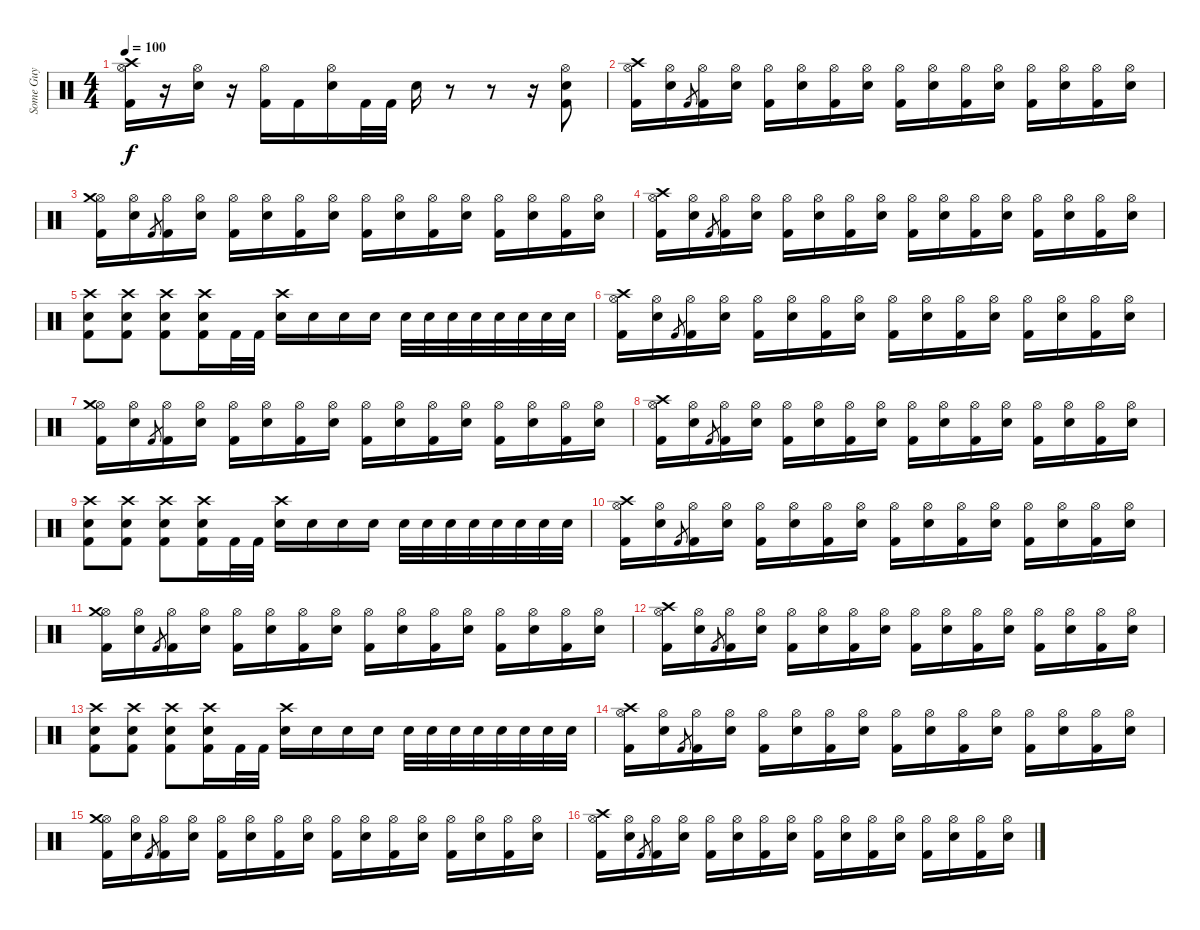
\track ("Some Guy" "Some Guy") {instrument percussion}
\staff {score}
\articulation defaults
\ts (4 4)
\tempo 100
\clef neutral
\ks c
("Hi-Hat (open)" "Crash high (hit)" "Kick (hit) 2").16{dy f} r.16 ("Hi-Hat (open)" "Snare (hit) 2").16 r.16 ("Hi-Hat (open)" "Kick (hit) 2").16 "Kick (hit) 2".16 ("Hi-Hat (open)" "Snare (hit) 2").16 "Kick (hit) 2".32 "Kick (hit) 2".32 "Snare (hit) 2".16 r.8 r.8 r.16 ("Hi-Hat (open)" "Snare (hit) 2" "Kick (hit) 2").8 |
("Hi-Hat (open)" "Crash high (hit)" "Kick (hit) 2").16 ("Hi-Hat (open)" "Snare (hit) 2").16 "Kick (hit) 2".8{gr} ("Hi-Hat (open)" "Kick (hit) 2").16 ("Hi-Hat (open)" "Snare (hit) 2").16 ("Hi-Hat (open)" "Kick (hit) 2").16 ("Hi-Hat (open)" "Snare (hit) 2").16 ("Hi-Hat (open)" "Kick (hit) 2").16 ("Hi-Hat (open)" "Snare (hit) 2").16 ("Hi-Hat (open)" "Kick (hit) 2").16 ("Hi-Hat (open)" "Snare (hit) 2").16 ("Hi-Hat (open)" "Kick (hit) 2").16 ("Hi-Hat (open)" "Snare (hit) 2").16 ("Hi-Hat (open)" "Kick (hit) 2").16 ("Hi-Hat (open)" "Snare (hit) 2").16 ("Hi-Hat (open)" "Kick (hit) 2").16 ("Hi-Hat (open)" "Snare (hit) 2").16 |
("Hi-Hat (open)" "Crash medium (hit)" "Kick (hit) 2").16 ("Hi-Hat (open)" "Snare (hit) 2").16 "Kick (hit) 2".8{gr} ("Hi-Hat (open)" "Kick (hit) 2").16 ("Hi-Hat (open)" "Snare (hit) 2").16 ("Hi-Hat (open)" "Kick (hit) 2").16 ("Hi-Hat (open)" "Snare (hit) 2").16 ("Hi-Hat (open)" "Kick (hit) 2").16 ("Hi-Hat (open)" "Snare (hit) 2").16 ("Hi-Hat (open)" "Kick (hit) 2").16 ("Hi-Hat (open)" "Snare (hit) 2").16 ("Hi-Hat (open)" "Kick (hit) 2").16 ("Hi-Hat (open)" "Snare (hit) 2").16 ("Hi-Hat (open)" "Kick (hit) 2").16 ("Hi-Hat (open)" "Snare (hit) 2").16 ("Hi-Hat (open)" "Kick (hit) 2").16 ("Hi-Hat (open)" "Snare (hit) 2").16 |
("Hi-Hat (open)" "Crash high (hit)" "Kick (hit) 2").16 ("Hi-Hat (open)" "Snare (hit) 2").16 "Kick (hit) 2".8{gr} ("Hi-Hat (open)" "Kick (hit) 2").16 ("Hi-Hat (open)" "Snare (hit) 2").16 ("Hi-Hat (open)" "Kick (hit) 2").16 ("Hi-Hat (open)" "Snare (hit) 2").16 ("Hi-Hat (open)" "Kick (hit) 2").16 ("Hi-Hat (open)" "Snare (hit) 2").16 ("Hi-Hat (open)" "Kick (hit) 2").16 ("Hi-Hat (open)" "Snare (hit) 2").16 ("Hi-Hat (open)" "Kick (hit) 2").16 ("Hi-Hat (open)" "Snare (hit) 2").16 ("Hi-Hat (open)" "Kick (hit) 2").16 ("Hi-Hat (open)" "Snare (hit) 2").16 ("Hi-Hat (open)" "Kick (hit) 2").16 ("Hi-Hat (open)" "Snare (hit) 2").16 |
("Crash high (hit)" "Kick (hit) 2" "Snare (hit) 2").8 ("Crash high (hit)" "Kick (hit) 2" "Snare (hit) 2").8 ("Crash high (hit)" "Kick (hit) 2" "Snare (hit) 2").8 ("Crash high (hit)" "Kick (hit) 2" "Snare (hit) 2").16 "Kick (hit) 2".32 "Kick (hit) 2".32 ("Snare (hit) 2" "Crash high (hit)").16 "Snare (hit) 2".16 "Snare (hit) 2".16 "Snare (hit) 2".16 "Snare (hit) 2".32 "Snare (hit) 2".32 "Snare (hit) 2".32 "Snare (hit) 2".32 "Snare (hit) 2".32 "Snare (hit) 2".32 "Snare (hit) 2".32 "Snare (hit) 2".32 |
("Hi-Hat (open)" "Crash high (hit)" "Kick (hit) 2").16 ("Hi-Hat (open)" "Snare (hit) 2").16 "Kick (hit) 2".8{gr} ("Hi-Hat (open)" "Kick (hit) 2").16 ("Hi-Hat (open)" "Snare (hit) 2").16 ("Hi-Hat (open)" "Kick (hit) 2").16 ("Hi-Hat (open)" "Snare (hit) 2").16 ("Hi-Hat (open)" "Kick (hit) 2").16 ("Hi-Hat (open)" "Snare (hit) 2").16 ("Hi-Hat (open)" "Kick (hit) 2").16 ("Hi-Hat (open)" "Snare (hit) 2").16 ("Hi-Hat (open)" "Kick (hit) 2").16 ("Hi-Hat (open)" "Snare (hit) 2").16 ("Hi-Hat (open)" "Kick (hit) 2").16 ("Hi-Hat (open)" "Snare (hit) 2").16 ("Hi-Hat (open)" "Kick (hit) 2").16 ("Hi-Hat (open)" "Snare (hit) 2").16 |
("Hi-Hat (open)" "Crash medium (hit)" "Kick (hit) 2").16 ("Hi-Hat (open)" "Snare (hit) 2").16 "Kick (hit) 2".8{gr} ("Hi-Hat (open)" "Kick (hit) 2").16 ("Hi-Hat (open)" "Snare (hit) 2").16 ("Hi-Hat (open)" "Kick (hit) 2").16 ("Hi-Hat (open)" "Snare (hit) 2").16 ("Hi-Hat (open)" "Kick (hit) 2").16 ("Hi-Hat (open)" "Snare (hit) 2").16 ("Hi-Hat (open)" "Kick (hit) 2").16 ("Hi-Hat (open)" "Snare (hit) 2").16 ("Hi-Hat (open)" "Kick (hit) 2").16 ("Hi-Hat (open)" "Snare (hit) 2").16 ("Hi-Hat (open)" "Kick (hit) 2").16 ("Hi-Hat (open)" "Snare (hit) 2").16 ("Hi-Hat (open)" "Kick (hit) 2").16 ("Hi-Hat (open)" "Snare (hit) 2").16 |
("Hi-Hat (open)" "Crash high (hit)" "Kick (hit) 2").16 ("Hi-Hat (open)" "Snare (hit) 2").16 "Kick (hit) 2".8{gr} ("Hi-Hat (open)" "Kick (hit) 2").16 ("Hi-Hat (open)" "Snare (hit) 2").16 ("Hi-Hat (open)" "Kick (hit) 2").16 ("Hi-Hat (open)" "Snare (hit) 2").16 ("Hi-Hat (open)" "Kick (hit) 2").16 ("Hi-Hat (open)" "Snare (hit) 2").16 ("Hi-Hat (open)" "Kick (hit) 2").16 ("Hi-Hat (open)" "Snare (hit) 2").16 ("Hi-Hat (open)" "Kick (hit) 2").16 ("Hi-Hat (open)" "Snare (hit) 2").16 ("Hi-Hat (open)" "Kick (hit) 2").16 ("Hi-Hat (open)" "Snare (hit) 2").16 ("Hi-Hat (open)" "Kick (hit) 2").16 ("Hi-Hat (open)" "Snare (hit) 2").16 |
("Crash high (hit)" "Kick (hit) 2" "Snare (hit) 2").8 ("Crash high (hit)" "Kick (hit) 2" "Snare (hit) 2").8 ("Crash high (hit)" "Kick (hit) 2" "Snare (hit) 2").8 ("Crash high (hit)" "Kick (hit) 2" "Snare (hit) 2").16 "Kick (hit) 2".32 "Kick (hit) 2".32 ("Snare (hit) 2" "Crash high (hit)").16 "Snare (hit) 2".16 "Snare (hit) 2".16 "Snare (hit) 2".16 "Snare (hit) 2".32 "Snare (hit) 2".32 "Snare (hit) 2".32 "Snare (hit) 2".32 "Snare (hit) 2".32 "Snare (hit) 2".32 "Snare (hit) 2".32 "Snare (hit) 2".32 |
("Hi-Hat (open)" "Crash high (hit)" "Kick (hit) 2").16 ("Hi-Hat (open)" "Snare (hit) 2").16 "Kick (hit) 2".8{gr} ("Hi-Hat (open)" "Kick (hit) 2").16 ("Hi-Hat (open)" "Snare (hit) 2").16 ("Hi-Hat (open)" "Kick (hit) 2").16 ("Hi-Hat (open)" "Snare (hit) 2").16 ("Hi-Hat (open)" "Kick (hit) 2").16 ("Hi-Hat (open)" "Snare (hit) 2").16 ("Hi-Hat (open)" "Kick (hit) 2").16 ("Hi-Hat (open)" "Snare (hit) 2").16 ("Hi-Hat (open)" "Kick (hit) 2").16 ("Hi-Hat (open)" "Snare (hit) 2").16 ("Hi-Hat (open)" "Kick (hit) 2").16 ("Hi-Hat (open)" "Snare (hit) 2").16 ("Hi-Hat (open)" "Kick (hit) 2").16 ("Hi-Hat (open)" "Snare (hit) 2").16 |
("Hi-Hat (open)" "Crash medium (hit)" "Kick (hit) 2").16 ("Hi-Hat (open)" "Snare (hit) 2").16 "Kick (hit) 2".8{gr} ("Hi-Hat (open)" "Kick (hit) 2").16 ("Hi-Hat (open)" "Snare (hit) 2").16 ("Hi-Hat (open)" "Kick (hit) 2").16 ("Hi-Hat (open)" "Snare (hit) 2").16 ("Hi-Hat (open)" "Kick (hit) 2").16 ("Hi-Hat (open)" "Snare (hit) 2").16 ("Hi-Hat (open)" "Kick (hit) 2").16 ("Hi-Hat (open)" "Snare (hit) 2").16 ("Hi-Hat (open)" "Kick (hit) 2").16 ("Hi-Hat (open)" "Snare (hit) 2").16 ("Hi-Hat (open)" "Kick (hit) 2").16 ("Hi-Hat (open)" "Snare (hit) 2").16 ("Hi-Hat (open)" "Kick (hit) 2").16 ("Hi-Hat (open)" "Snare (hit) 2").16 |
("Hi-Hat (open)" "Crash high (hit)" "Kick (hit) 2").16 ("Hi-Hat (open)" "Snare (hit) 2").16 "Kick (hit) 2".8{gr} ("Hi-Hat (open)" "Kick (hit) 2").16 ("Hi-Hat (open)" "Snare (hit) 2").16 ("Hi-Hat (open)" "Kick (hit) 2").16 ("Hi-Hat (open)" "Snare (hit) 2").16 ("Hi-Hat (open)" "Kick (hit) 2").16 ("Hi-Hat (open)" "Snare (hit) 2").16 ("Hi-Hat (open)" "Kick (hit) 2").16 ("Hi-Hat (open)" "Snare (hit) 2").16 ("Hi-Hat (open)" "Kick (hit) 2").16 ("Hi-Hat (open)" "Snare (hit) 2").16 ("Hi-Hat (open)" "Kick (hit) 2").16 ("Hi-Hat (open)" "Snare (hit) 2").16 ("Hi-Hat (open)" "Kick (hit) 2").16 ("Hi-Hat (open)" "Snare (hit) 2").16 |
("Crash high (hit)" "Kick (hit) 2" "Snare (hit) 2").8 ("Crash high (hit)" "Kick (hit) 2" "Snare (hit) 2").8 ("Crash high (hit)" "Kick (hit) 2" "Snare (hit) 2").8 ("Crash high (hit)" "Kick (hit) 2" "Snare (hit) 2").16 "Kick (hit) 2".32 "Kick (hit) 2".32 ("Snare (hit) 2" "Crash high (hit)").16 "Snare (hit) 2".16 "Snare (hit) 2".16 "Snare (hit) 2".16 "Snare (hit) 2".32 "Snare (hit) 2".32 "Snare (hit) 2".32 "Snare (hit) 2".32 "Snare (hit) 2".32 "Snare (hit) 2".32 "Snare (hit) 2".32 "Snare (hit) 2".32 |
("Hi-Hat (open)" "Crash high (hit)" "Kick (hit) 2").16 ("Hi-Hat (open)" "Snare (hit) 2").16 "Kick (hit) 2".8{gr} ("Hi-Hat (open)" "Kick (hit) 2").16 ("Hi-Hat (open)" "Snare (hit) 2").16 ("Hi-Hat (open)" "Kick (hit) 2").16 ("Hi-Hat (open)" "Snare (hit) 2").16 ("Hi-Hat (open)" "Kick (hit) 2").16 ("Hi-Hat (open)" "Snare (hit) 2").16 ("Hi-Hat (open)" "Kick (hit) 2").16 ("Hi-Hat (open)" "Snare (hit) 2").16 ("Hi-Hat (open)" "Kick (hit) 2").16 ("Hi-Hat (open)" "Snare (hit) 2").16 ("Hi-Hat (open)" "Kick (hit) 2").16 ("Hi-Hat (open)" "Snare (hit) 2").16 ("Hi-Hat (open)" "Kick (hit) 2").16 ("Hi-Hat (open)" "Snare (hit) 2").16 |
("Hi-Hat (open)" "Crash medium (hit)" "Kick (hit) 2").16 ("Hi-Hat (open)" "Snare (hit) 2").16 "Kick (hit) 2".8{gr} ("Hi-Hat (open)" "Kick (hit) 2").16 ("Hi-Hat (open)" "Snare (hit) 2").16 ("Hi-Hat (open)" "Kick (hit) 2").16 ("Hi-Hat (open)" "Snare (hit) 2").16 ("Hi-Hat (open)" "Kick (hit) 2").16 ("Hi-Hat (open)" "Snare (hit) 2").16 ("Hi-Hat (open)" "Kick (hit) 2").16 ("Hi-Hat (open)" "Snare (hit) 2").16 ("Hi-Hat (open)" "Kick (hit) 2").16 ("Hi-Hat (open)" "Snare (hit) 2").16 ("Hi-Hat (open)" "Kick (hit) 2").16 ("Hi-Hat (open)" "Snare (hit) 2").16 ("Hi-Hat (open)" "Kick (hit) 2").16 ("Hi-Hat (open)" "Snare (hit) 2").16 |
("Hi-Hat (open)" "Crash high (hit)" "Kick (hit) 2").16 ("Hi-Hat (open)" "Snare (hit) 2").16 "Kick (hit) 2".8{gr} ("Hi-Hat (open)" "Kick (hit) 2").16 ("Hi-Hat (open)" "Snare (hit) 2").16 ("Hi-Hat (open)" "Kick (hit) 2").16 ("Hi-Hat (open)" "Snare (hit) 2").16 ("Hi-Hat (open)" "Kick (hit) 2").16 ("Hi-Hat (open)" "Snare (hit) 2").16 ("Hi-Hat (open)" "Kick (hit) 2").16 ("Hi-Hat (open)" "Snare (hit) 2").16 ("Hi-Hat (open)" "Kick (hit) 2").16 ("Hi-Hat (open)" "Snare (hit) 2").16 ("Hi-Hat (open)" "Kick (hit) 2").16 ("Hi-Hat (open)" "Snare (hit) 2").16 ("Hi-Hat (open)" "Kick (hit) 2").16 ("Hi-Hat (open)" "Snare (hit) 2").16
